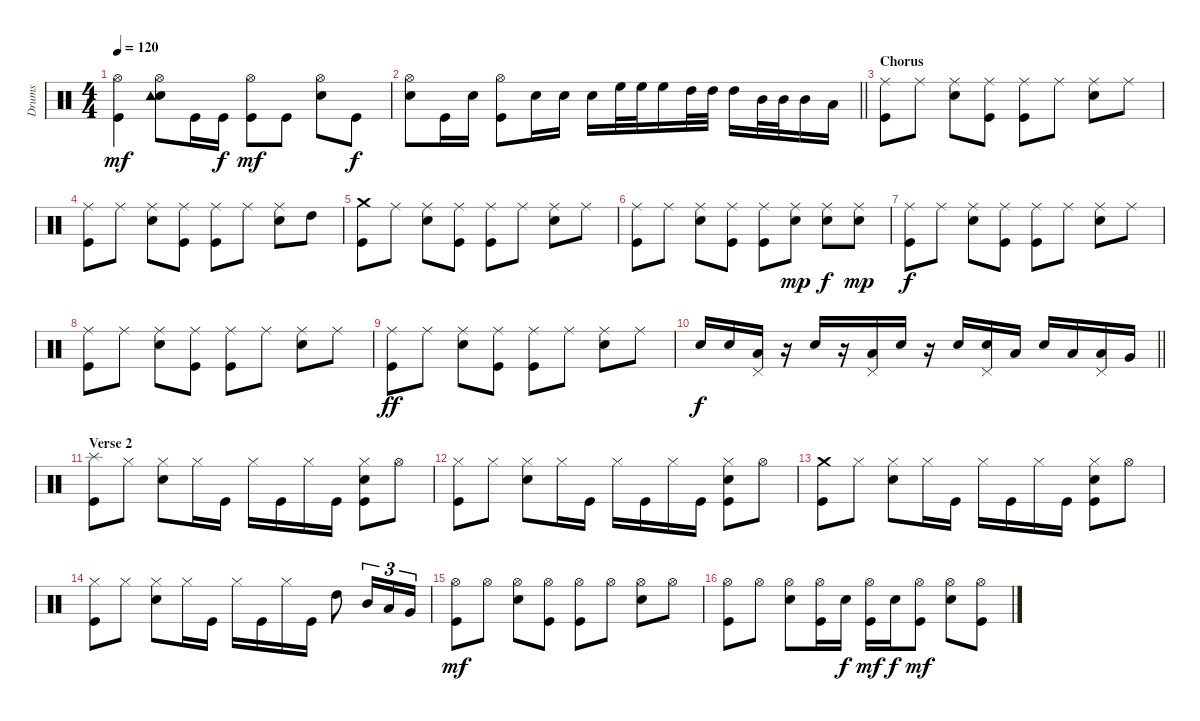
\track ("Drums" "Drums") {instrument percussion}
\staff {score}
\articulation defaults
\ts (4 4)
\tempo 120
\clef neutral
\ks c
("Hi-Hat (open)" "Kick (hit)").4{dy mf} ("Hi-Hat (open)" "Electric Snare (hit)" "Tambourine (hit)").8 "Kick (hit)".16 "Kick (hit)".16{dy f} ("Hi-Hat (open)" "Kick (hit)").8{dy mf} "Kick (hit)".8 ("Hi-Hat (open)" "Electric Snare (hit)").8 "Kick (hit)".8{dy f} |
\barLineRight lightlight
("Hi-Hat (open)" "Electric Snare (hit)").8 "Kick (hit)".16 "Electric Snare (hit)".16 ("Hi-Hat (open)" "Kick (hit)").8 "Electric Snare (hit)".16 "Electric Snare (hit)".16 "Electric Snare (hit)".16 "High Floor Tom (hit)".32 "High Floor Tom (hit)".32 "High Floor Tom (hit)".16 "High Tom (hit)".32 "High Tom (hit)".32 "High Tom (hit)".16 "Mid Tom (hit)".32 "Mid Tom (hit)".32 "Mid Tom (hit)".16 "Low Tom (hit)".16 |
\section ("" "Chorus")
("Ride (middle)" "Kick (hit)").8 "Ride (middle)".8 ("Ride (middle)" "Electric Snare (hit)").8 ("Ride (middle)" "Kick (hit)").8 ("Ride (middle)" "Kick (hit)").8 "Ride (middle)".8 ("Ride (middle)" "Electric Snare (hit)").8 "Ride (middle)".8 |
("Ride (middle)" "Kick (hit)").8 "Ride (middle)".8 ("Ride (middle)" "Electric Snare (hit)").8 ("Ride (middle)" "Kick (hit)").8 ("Ride (middle)" "Kick (hit)").8 "Ride (middle)".8 ("Ride (middle)" "Electric Snare (hit)").8 "High Tom (hit)".8 |
("Crash medium (hit)" "Kick (hit)").8 "Ride (middle)".8 ("Ride (middle)" "Electric Snare (hit)").8 ("Ride (middle)" "Kick (hit)").8 ("Ride (middle)" "Kick (hit)").8 "Ride (middle)".8 ("Ride (middle)" "Electric Snare (hit)").8 "Ride (middle)".8 |
("Ride (middle)" "Kick (hit)").8 "Ride (middle)".8 ("Ride (middle)" "Electric Snare (hit)").8 ("Ride (middle)" "Kick (hit)").8 ("Ride (middle)" "Kick (hit)").8 ("Ride (middle)" "Electric Snare (hit)").8{dy mp} ("Ride (middle)" "Electric Snare (hit)").8{dy f} ("Ride (middle)" "Electric Snare (hit)").8{dy mp} |
("Ride (middle)" "Kick (hit)").8{dy f} "Ride (middle)".8 ("Ride (middle)" "Electric Snare (hit)").8 ("Ride (middle)" "Kick (hit)").8 ("Ride (middle)" "Kick (hit)").8 "Ride (middle)".8 ("Ride (middle)" "Electric Snare (hit)").8 "Ride (middle)".8 |
("Ride (middle)" "Kick (hit)").8 "Ride (middle)".8 ("Ride (middle)" "Electric Snare (hit)").8 ("Ride (middle)" "Kick (hit)").8 ("Ride (middle)" "Kick (hit)").8 "Ride (middle)".8 ("Ride (middle)" "Electric Snare (hit)").8 "Ride (middle)".8 |
("Ride (middle)" "Kick (hit)").8{dy ff} "Ride (middle)".8 ("Ride (middle)" "Electric Snare (hit)").8 ("Ride (middle)" "Kick (hit)").8 ("Ride (middle)" "Kick (hit)").8 "Ride (middle)".8 ("Ride (middle)" "Electric Snare (hit)").8 "Ride (middle)".8 |
\barLineRight lightlight "Electric Snare (hit)".16{dy f} "Electric Snare (hit)".16
("Pedal Hi-Hat (hit)" "Low Tom (hit)").16 r.16 "Electric Snare (hit)".16 r.16 ("Pedal Hi-Hat (hit)" "Low Tom (hit)").16 "Electric Snare (hit)".16 r.16 "Electric Snare (hit)".16 ("Pedal Hi-Hat (hit)" "Electric Snare (hit)").16 "Low Tom (hit)".16 "Electric Snare (hit)".16 "Low Tom (hit)".16 ("Pedal Hi-Hat (hit)" "Low Tom (hit)").16 "Very Low Tom (hit)".16 |
\section ("" "Verse 2")
("Splash (hit)" "Kick (hit)").8 "Hi-Hat (closed)".8 ("Hi-Hat (closed)" "Electric Snare (hit)").8 "Hi-Hat (closed)".16 "Kick (hit)".16 "Hi-Hat (closed)".16 "Kick (hit)".16 "Hi-Hat (closed)".16 "Kick (hit)".16 ("Hi-Hat (closed)" "Electric Snare (hit)" "Kick (hit)").8 "Hi-Hat (open)".8 |
("Hi-Hat (closed)" "Kick (hit)").8 "Hi-Hat (closed)".8 ("Hi-Hat (closed)" "Electric Snare (hit)").8 "Hi-Hat (closed)".16 "Kick (hit)".16 "Hi-Hat (closed)".16 "Kick (hit)".16 "Hi-Hat (closed)".16 "Kick (hit)".16 ("Hi-Hat (closed)" "Electric Snare (hit)" "Kick (hit)").8 "Hi-Hat (open)".8 |
("Crash medium (hit)" "Kick (hit)").8 "Hi-Hat (closed)".8 ("Hi-Hat (closed)" "Electric Snare (hit)").8 "Hi-Hat (closed)".16 "Kick (hit)".16 "Hi-Hat (closed)".16 "Kick (hit)".16 "Hi-Hat (closed)".16 "Kick (hit)".16 ("Hi-Hat (closed)" "Electric Snare (hit)" "Kick (hit)").8 "Hi-Hat (open)".8 |
("Hi-Hat (closed)" "Kick (hit)").8 "Hi-Hat (closed)".8 ("Hi-Hat (closed)" "Electric Snare (hit)").8 "Hi-Hat (closed)".16 "Kick (hit)".16 "Hi-Hat (closed)".16 "Kick (hit)".16 "Hi-Hat (closed)".16 "Kick (hit)".16 "High Tom (hit)".8 "Mid Tom (hit)".16{tu (3 2)} "Low Tom (hit)".16{tu (3 2)} "Very Low Tom (hit)".16{tu (3 2)} |
("Hi-Hat (open)" "Kick (hit)").8{dy mf} "Hi-Hat (open)".8 ("Hi-Hat (open)" "Electric Snare (hit)").8 ("Hi-Hat (open)" "Kick (hit)").8 ("Hi-Hat (open)" "Kick (hit)").8 "Hi-Hat (open)".8 ("Hi-Hat (open)" "Electric Snare (hit)").8 "Hi-Hat (open)".8 |
("Hi-Hat (open)" "Kick (hit)").8 "Hi-Hat (open)".8 ("Hi-Hat (open)" "Electric Snare (hit)").8 ("Hi-Hat (open)" "Kick (hit)").16 "Electric Snare (hit)".16{dy f} ("Hi-Hat (open)" "Kick (hit)").16{dy mf} "Electric Snare (hit)".16{dy f} ("Hi-Hat (open)" "Kick (hit)").8{dy mf} ("Hi-Hat (open)" "Electric Snare (hit)").8 ("Hi-Hat (open)" "Kick (hit)").8
